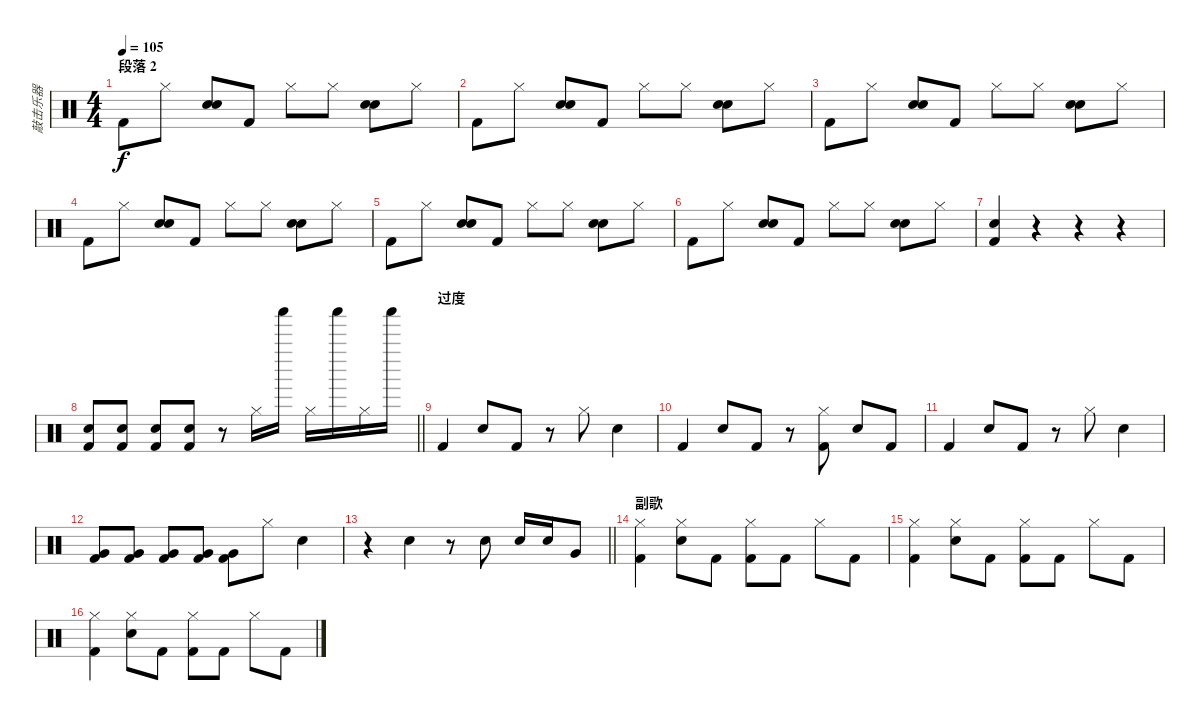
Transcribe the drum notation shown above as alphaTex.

\track ("敲击乐器" "敲击乐器") {instrument percussion}
\staff {score}
\articulation defaults
\ts (4 4)
\section ("" "段落 2")
\tempo 105
\clef neutral
\ks c "Kick (hit) 2".8{dy f} "Hi-Hat (closed)".8
("Electric Snare (hit)" "Hand Clap (hit)").8 "Kick (hit) 2".8 "Hi-Hat (closed)".8 "Hi-Hat (closed)".8 ("Electric Snare (hit)" "Hand Clap (hit)").8 "Hi-Hat (closed)".8 |
"Kick (hit) 2".8 "Hi-Hat (closed)".8 ("Electric Snare (hit)" "Hand Clap (hit)").8 "Kick (hit) 2".8 "Hi-Hat (closed)".8 "Hi-Hat (closed)".8 ("Electric Snare (hit)" "Hand Clap (hit)").8 "Hi-Hat (closed)".8 |
"Kick (hit) 2".8 "Hi-Hat (closed)".8 ("Electric Snare (hit)" "Hand Clap (hit)").8 "Kick (hit) 2".8 "Hi-Hat (closed)".8 "Hi-Hat (closed)".8 ("Electric Snare (hit)" "Hand Clap (hit)").8 "Hi-Hat (closed)".8 |
"Kick (hit) 2".8 "Hi-Hat (closed)".8 ("Electric Snare (hit)" "Hand Clap (hit)").8 "Kick (hit) 2".8 "Hi-Hat (closed)".8 "Hi-Hat (closed)".8 ("Electric Snare (hit)" "Hand Clap (hit)").8 "Hi-Hat (closed)".8 |
"Kick (hit) 2".8 "Hi-Hat (closed)".8 ("Electric Snare (hit)" "Hand Clap (hit)").8 "Kick (hit) 2".8 "Hi-Hat (closed)".8 "Hi-Hat (closed)".8 ("Electric Snare (hit)" "Hand Clap (hit)").8 "Hi-Hat (closed)".8 |
"Kick (hit) 2".8 "Hi-Hat (closed)".8 ("Electric Snare (hit)" "Hand Clap (hit)").8 "Kick (hit) 2".8 "Hi-Hat (closed)".8 "Hi-Hat (closed)".8 ("Electric Snare (hit)" "Hand Clap (hit)").8 "Hi-Hat (closed)".8 |
("Kick (hit) 2" "Electric Snare (hit)").4 r.4 r.4 r.4 |
\barLineRight lightlight
("Electric Snare (hit)" "Kick (hit) 2").8 ("Kick (hit) 2" "Electric Snare (hit)").8 ("Electric Snare (hit)" "Kick (hit) 2").8 ("Kick (hit) 2" "Electric Snare (hit)").8 r.8 "Hi-Hat (closed)".16 "Shaker (hit)".16 "Hi-Hat (closed)".16 "Shaker (hit)".16 "Hi-Hat (closed)".16 "Shaker (hit)".16 |
\section ("" "过度")
"Kick (hit) 2".4 "Hand Clap (hit)".8 "Kick (hit) 2".8 r.8 "Hi-Hat (closed)".8 "Hand Clap (hit)".4 |
"Kick (hit) 2".4 "Hand Clap (hit)".8 "Kick (hit) 2".8 r.8 ("Hi-Hat (closed)" "Kick (hit) 2").8 "Hand Clap (hit)".8 "Kick (hit) 2".8 |
"Kick (hit) 2".4 "Hand Clap (hit)".8 "Kick (hit) 2".8 r.8 "Hi-Hat (closed)".8 "Hand Clap (hit)".4 |
("Kick (hit) 2" "Very Low Tom (hit)").8 ("Kick (hit) 2" "Very Low Tom (hit)").8 ("Kick (hit) 2" "Very Low Tom (hit)").8 ("Kick (hit) 2" "Very Low Tom (hit)").8 ("Kick (hit) 2" "Very Low Tom (hit)").8 "Hi-Hat (closed)".8 "Hand Clap (hit)".4 |
\barLineRight lightlight
r.4 "Hand Clap (hit)".4 r.8 "Electric Snare (hit)".8 "Electric Snare (hit)".16 "Electric Snare (hit)".16 "Very Low Tom (hit)".8 |
\section ("" "副歌")
("Kick (hit) 2" "Hi-Hat (closed)").4 ("Electric Snare (hit)" "Hi-Hat (closed)").8 "Kick (hit) 2".8 ("Kick (hit) 2" "Hi-Hat (closed)").8 "Kick (hit) 2".8 "Hi-Hat (closed)".8 "Kick (hit) 2".8 |
("Kick (hit) 2" "Hi-Hat (closed)").4 ("Electric Snare (hit)" "Hi-Hat (closed)").8 "Kick (hit) 2".8 ("Kick (hit) 2" "Hi-Hat (closed)").8 "Kick (hit) 2".8 "Hi-Hat (closed)".8 "Kick (hit) 2".8 |
("Kick (hit) 2" "Hi-Hat (closed)").4 ("Electric Snare (hit)" "Hi-Hat (closed)").8 "Kick (hit) 2".8 ("Kick (hit) 2" "Hi-Hat (closed)").8 "Kick (hit) 2".8 "Hi-Hat (closed)".8 "Kick (hit) 2".8
